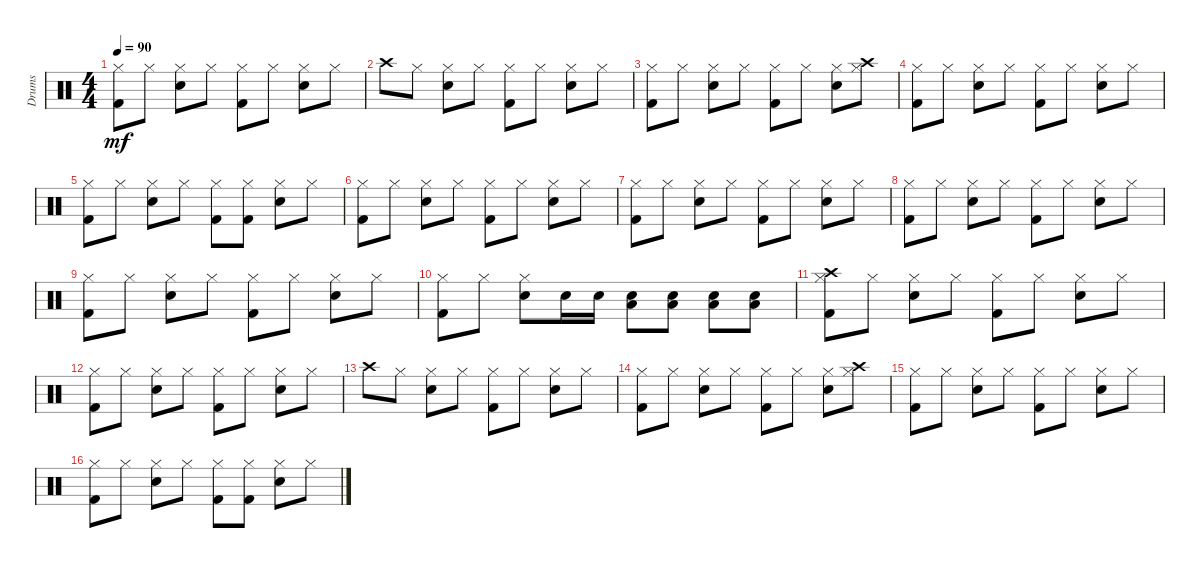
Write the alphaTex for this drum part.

\track ("Drums" "Drums") {instrument percussion}
\staff {score}
\articulation defaults
\ts (4 4)
\tempo 90
\clef neutral
\ks c
("Hi-Hat (closed)" "Kick (hit) 2").8{dy mf} "Hi-Hat (closed)".8 ("Hi-Hat (closed)" "Snare (hit) 2").8 "Hi-Hat (closed)".8 ("Hi-Hat (closed)" "Kick (hit) 2").8 "Hi-Hat (closed)".8 ("Hi-Hat (closed)" "Snare (hit) 2").8 "Hi-Hat (closed)".8 |
"Crash high (hit)".8 "Hi-Hat (closed)".8 ("Hi-Hat (closed)" "Snare (hit) 2").8 "Hi-Hat (closed)".8 ("Hi-Hat (closed)" "Kick (hit) 2").8 "Hi-Hat (closed)".8 ("Hi-Hat (closed)" "Snare (hit) 2").8 "Hi-Hat (closed)".8 |
("Hi-Hat (closed)" "Kick (hit) 2").8 "Hi-Hat (closed)".8 ("Hi-Hat (closed)" "Snare (hit) 2").8 "Hi-Hat (closed)".8 ("Hi-Hat (closed)" "Kick (hit) 2").8 "Hi-Hat (closed)".8 ("Hi-Hat (closed)" "Snare (hit) 2").8 ("Hi-Hat (closed)" "Crash high (hit)").8 |
("Hi-Hat (closed)" "Kick (hit) 2").8 "Hi-Hat (closed)".8 ("Hi-Hat (closed)" "Snare (hit) 2").8 "Hi-Hat (closed)".8 ("Hi-Hat (closed)" "Kick (hit) 2").8 "Hi-Hat (closed)".8 ("Hi-Hat (closed)" "Snare (hit) 2").8 "Hi-Hat (closed)".8 |
("Hi-Hat (closed)" "Kick (hit) 2").8 "Hi-Hat (closed)".8 ("Hi-Hat (closed)" "Snare (hit) 2").8 "Hi-Hat (closed)".8 ("Hi-Hat (closed)" "Kick (hit) 2").8 ("Hi-Hat (closed)" "Kick (hit) 2").8 ("Hi-Hat (closed)" "Snare (hit) 2").8 "Hi-Hat (closed)".8 |
("Hi-Hat (closed)" "Kick (hit) 2").8 "Hi-Hat (closed)".8 ("Hi-Hat (closed)" "Snare (hit) 2").8 "Hi-Hat (closed)".8 ("Hi-Hat (closed)" "Kick (hit) 2").8 "Hi-Hat (closed)".8 ("Hi-Hat (closed)" "Snare (hit) 2").8 "Hi-Hat (closed)".8 |
("Hi-Hat (closed)" "Kick (hit) 2").8 "Hi-Hat (closed)".8 ("Hi-Hat (closed)" "Snare (hit) 2").8 "Hi-Hat (closed)".8 ("Hi-Hat (closed)" "Kick (hit) 2").8 "Hi-Hat (closed)".8 ("Hi-Hat (closed)" "Snare (hit) 2").8 "Hi-Hat (closed)".8 |
("Hi-Hat (closed)" "Kick (hit) 2").8 "Hi-Hat (closed)".8 ("Hi-Hat (closed)" "Snare (hit) 2").8 "Hi-Hat (closed)".8 ("Hi-Hat (closed)" "Kick (hit) 2").8 "Hi-Hat (closed)".8 ("Hi-Hat (closed)" "Snare (hit) 2").8 "Hi-Hat (closed)".8 |
("Hi-Hat (closed)" "Kick (hit) 2").8 "Hi-Hat (closed)".8 ("Hi-Hat (closed)" "Snare (hit) 2").8 "Hi-Hat (closed)".8 ("Hi-Hat (closed)" "Kick (hit) 2").8 "Hi-Hat (closed)".8 ("Hi-Hat (closed)" "Snare (hit) 2").8 "Hi-Hat (closed)".8 |
("Hi-Hat (closed)" "Kick (hit) 2").8 "Hi-Hat (closed)".8 ("Hi-Hat (closed)" "Snare (hit) 2").8 "Snare (hit) 2".16 "Snare (hit) 2".16 ("Snare (hit) 2" "Low Floor Tom (hit)").8 ("Snare (hit) 2" "Low Floor Tom (hit)").8 ("Snare (hit) 2" "Low Floor Tom (hit)").8 ("Snare (hit) 2" "Low Floor Tom (hit)").8 |
("Hi-Hat (closed)" "Crash high (hit)" "Kick (hit) 2").8 "Hi-Hat (closed)".8 ("Hi-Hat (closed)" "Snare (hit) 2").8 "Hi-Hat (closed)".8 ("Hi-Hat (closed)" "Kick (hit) 2").8 "Hi-Hat (closed)".8 ("Hi-Hat (closed)" "Snare (hit) 2").8 "Hi-Hat (closed)".8 |
("Hi-Hat (closed)" "Kick (hit) 2").8 "Hi-Hat (closed)".8 ("Hi-Hat (closed)" "Snare (hit) 2").8 "Hi-Hat (closed)".8 ("Hi-Hat (closed)" "Kick (hit) 2").8 "Hi-Hat (closed)".8 ("Hi-Hat (closed)" "Snare (hit) 2").8 "Hi-Hat (closed)".8 |
"Crash high (hit)".8 "Hi-Hat (closed)".8 ("Hi-Hat (closed)" "Snare (hit) 2").8 "Hi-Hat (closed)".8 ("Hi-Hat (closed)" "Kick (hit) 2").8 "Hi-Hat (closed)".8 ("Hi-Hat (closed)" "Snare (hit) 2").8 "Hi-Hat (closed)".8 |
("Hi-Hat (closed)" "Kick (hit) 2").8 "Hi-Hat (closed)".8 ("Hi-Hat (closed)" "Snare (hit) 2").8 "Hi-Hat (closed)".8 ("Hi-Hat (closed)" "Kick (hit) 2").8 "Hi-Hat (closed)".8 ("Hi-Hat (closed)" "Snare (hit) 2").8 ("Hi-Hat (closed)" "Crash high (hit)").8 |
("Hi-Hat (closed)" "Kick (hit) 2").8 "Hi-Hat (closed)".8 ("Hi-Hat (closed)" "Snare (hit) 2").8 "Hi-Hat (closed)".8 ("Hi-Hat (closed)" "Kick (hit) 2").8 "Hi-Hat (closed)".8 ("Hi-Hat (closed)" "Snare (hit) 2").8 "Hi-Hat (closed)".8 |
("Hi-Hat (closed)" "Kick (hit) 2").8 "Hi-Hat (closed)".8 ("Hi-Hat (closed)" "Snare (hit) 2").8 "Hi-Hat (closed)".8 ("Hi-Hat (closed)" "Kick (hit) 2").8 ("Hi-Hat (closed)" "Kick (hit) 2").8 ("Hi-Hat (closed)" "Snare (hit) 2").8 "Hi-Hat (closed)".8
